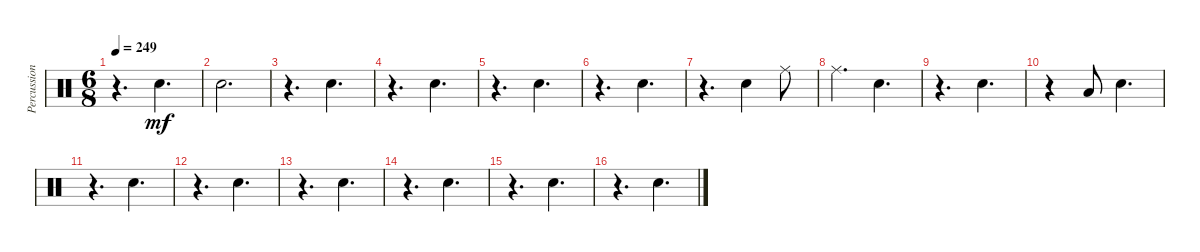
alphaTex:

\track ("Percussion" "Percussion") {instrument percussion}
\staff {score}
\articulation defaults
\ts (6 8)
\tempo 249
\clef neutral
\ks c
r.4{d dy mf} "Snare (hit) 2".4{d} |
"Snare (hit) 2".2{d} |
r.4{d} "Snare (hit) 2".4{d} |
r.4{d} "Snare (hit) 2".4{d} |
r.4{d} "Snare (hit) 2".4{d} |
r.4{d} "Snare (hit) 2".4{d} |
r.4{d} "Snare (hit) 2".4 "Ride (middle)".8 |
"Ride (middle)".4{d} "Snare (hit) 2".4{d} |
r.4{d} "Snare (hit) 2".4{d} |
r.4 "Low Tom (hit)".8 "Snare (hit) 2".4{d} |
r.4{d} "Snare (hit) 2".4{d} |
r.4{d} "Snare (hit) 2".4{d} |
r.4{d} "Snare (hit) 2".4{d} |
r.4{d} "Snare (hit) 2".4{d} |
r.4{d} "Snare (hit) 2".4{d} |
r.4{d} "Snare (hit) 2".4{d}
